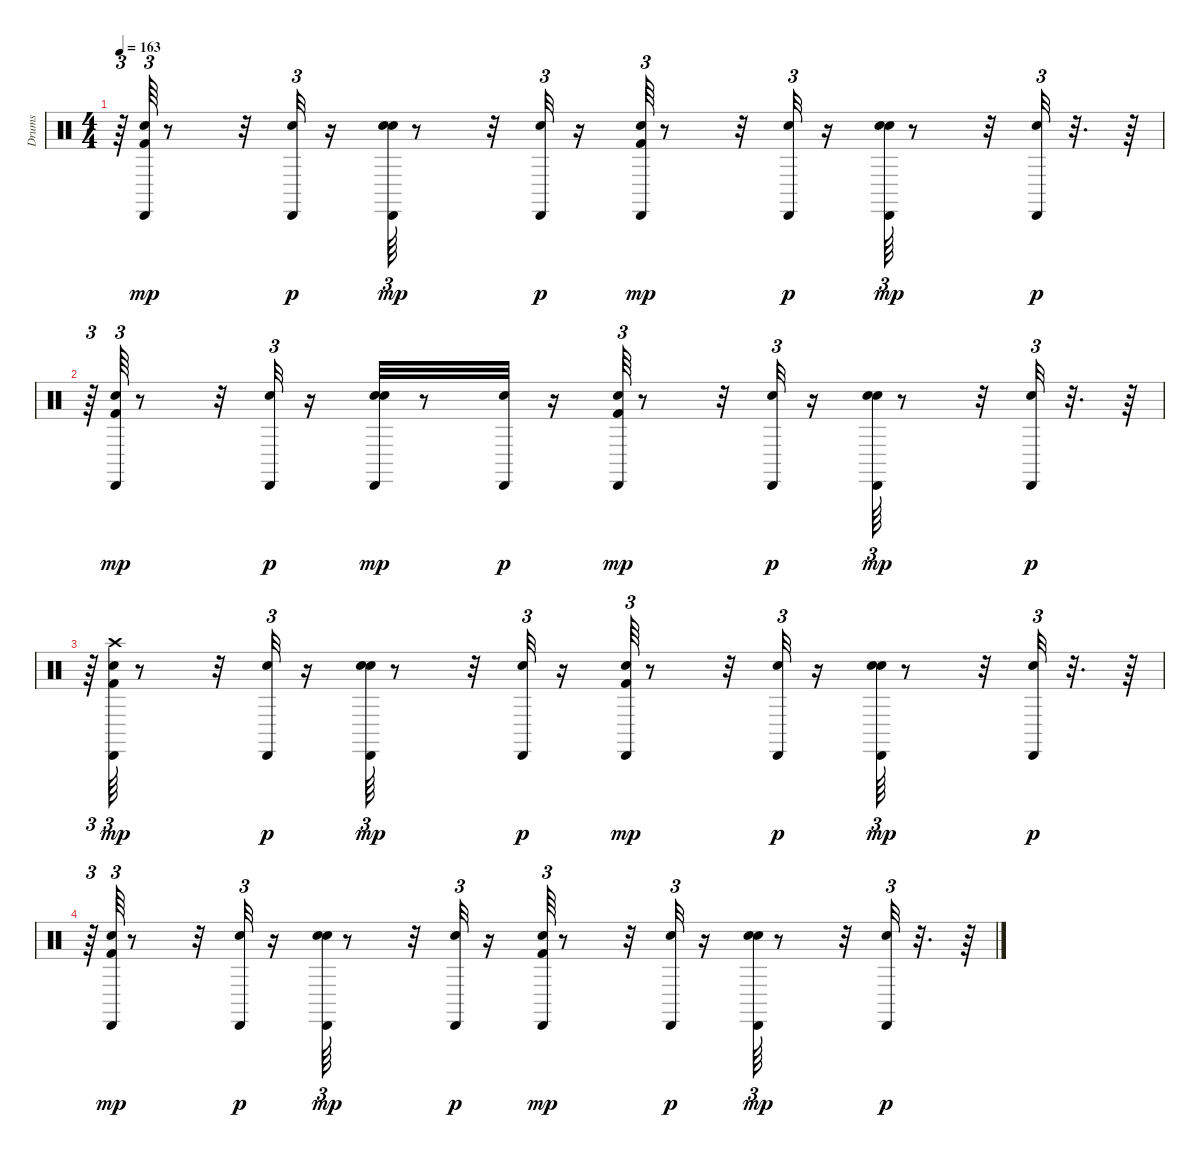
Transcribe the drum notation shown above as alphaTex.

\track ("Drums               " "Drums     ") {instrument percussion}
\staff {score}
\articulation defaults
\ts (4 4)
\tempo 163
\clef neutral
\ks c
r.64{tu (3 2) dy p} ("Kick (hit) 2" "Snare (hit) 2" "Cabasa (hit)").64{tu (3 2) dy mp} r.8 r.32 ("Snare (hit) 2" "Cabasa (hit)").32{tu (3 2) dy p} r.16 ("Snare (hit) 2" "Hand Clap (hit)" "Cabasa (hit)").64{tu (3 2) dy mp} r.8 r.32 ("Snare (hit) 2" "Cabasa (hit)").32{tu (3 2) dy p} r.16 ("Kick (hit) 2" "Snare (hit) 2" "Cabasa (hit)").64{tu (3 2) dy mp} r.8 r.32 ("Snare (hit) 2" "Cabasa (hit)").32{tu (3 2) dy p} r.16 ("Snare (hit) 2" "Hand Clap (hit)" "Cabasa (hit)").64{tu (3 2) dy mp} r.8 r.32 ("Snare (hit) 2" "Cabasa (hit)").32{tu (3 2) dy p} r.32{d} r.64 |
r.64{tu (3 2)} ("Kick (hit) 2" "Snare (hit) 2" "Cabasa (hit)").64{tu (3 2) dy mp} r.8 r.32 ("Snare (hit) 2" "Cabasa (hit)").32{tu (3 2) dy p} r.16 ("Snare (hit) 2" "Hand Clap (hit)" "Cabasa (hit)").32{dy mp} r.8 ("Snare (hit) 2" "Cabasa (hit)").32{dy p} r.16 ("Kick (hit) 2" "Snare (hit) 2" "Cabasa (hit)").64{tu (3 2) dy mp} r.8 r.32 ("Snare (hit) 2" "Cabasa (hit)").32{tu (3 2) dy p} r.16 ("Snare (hit) 2" "Hand Clap (hit)" "Cabasa (hit)").64{tu (3 2) dy mp} r.8 r.32 ("Snare (hit) 2" "Cabasa (hit)").32{tu (3 2) dy p} r.32{d} r.64 |
r.64{tu (3 2)} ("Kick (hit) 2" "Snare (hit) 2" "Crash high (hit)" "Cabasa (hit)").64{tu (3 2) dy mp} r.8 r.32 ("Snare (hit) 2" "Cabasa (hit)").32{tu (3 2) dy p} r.16 ("Snare (hit) 2" "Hand Clap (hit)" "Cabasa (hit)").64{tu (3 2) dy mp} r.8 r.32 ("Snare (hit) 2" "Cabasa (hit)").32{tu (3 2) dy p} r.16 ("Kick (hit) 2" "Snare (hit) 2" "Cabasa (hit)").64{tu (3 2) dy mp} r.8 r.32 ("Snare (hit) 2" "Cabasa (hit)").32{tu (3 2) dy p} r.16 ("Snare (hit) 2" "Hand Clap (hit)" "Cabasa (hit)").64{tu (3 2) dy mp} r.8 r.32 ("Snare (hit) 2" "Cabasa (hit)").32{tu (3 2) dy p} r.32{d} r.64 |
r.64{tu (3 2)} ("Kick (hit) 2" "Snare (hit) 2" "Cabasa (hit)").64{tu (3 2) dy mp} r.8 r.32 ("Snare (hit) 2" "Cabasa (hit)").32{tu (3 2) dy p} r.16 ("Snare (hit) 2" "Hand Clap (hit)" "Cabasa (hit)").64{tu (3 2) dy mp} r.8 r.32 ("Snare (hit) 2" "Cabasa (hit)").32{tu (3 2) dy p} r.16 ("Kick (hit) 2" "Snare (hit) 2" "Cabasa (hit)").64{tu (3 2) dy mp} r.8 r.32 ("Snare (hit) 2" "Cabasa (hit)").32{tu (3 2) dy p} r.16 ("Snare (hit) 2" "Hand Clap (hit)" "Cabasa (hit)").64{tu (3 2) dy mp} r.8 r.32 ("Snare (hit) 2" "Cabasa (hit)").32{tu (3 2) dy p} r.32{d} r.64
